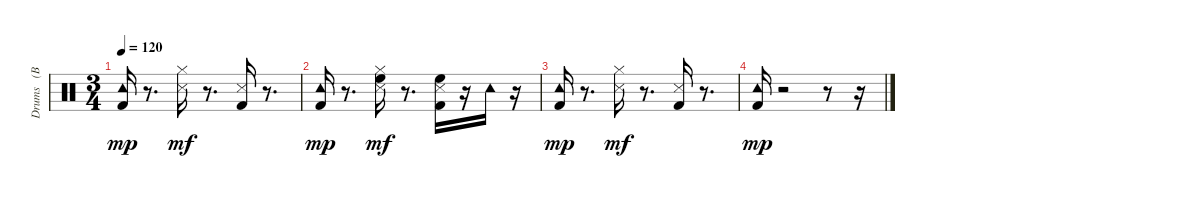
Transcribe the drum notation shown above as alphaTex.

\track ("Drums   (BB)" "Drums   (B") {instrument percussion}
\staff {score}
\articulation defaults
\ts (3 4)
\tempo 120
\clef neutral
\ks c
("Kick (hit) 2" "Tambourine (hit)").16{dy mp} r.8{d} ("Hi-Hat (closed)" "Snare (side stick) 3").16{dy mf} r.8{d} ("Kick (hit) 2" "Snare (side stick) 3").16 r.8{d} |
("Kick (hit) 2" "Tambourine (hit)").16{dy mp} r.8{d} ("Hi-Hat (closed)" "Snare (side stick) 3" "High Floor Tom (hit)").16{dy mf} r.8{d} ("Kick (hit) 2" "Snare (side stick) 3" "High Floor Tom (hit)").16 r.16 "Tambourine (hit)".16 r.16 |
("Kick (hit) 2" "Tambourine (hit)").16{dy mp} r.8{d} ("Hi-Hat (closed)" "Snare (side stick) 3").16{dy mf} r.8{d} ("Kick (hit) 2" "Snare (side stick) 3").16 r.8{d} |
("Kick (hit) 2" "Tambourine (hit)").16{dy mp} r.2 r.8 r.16
